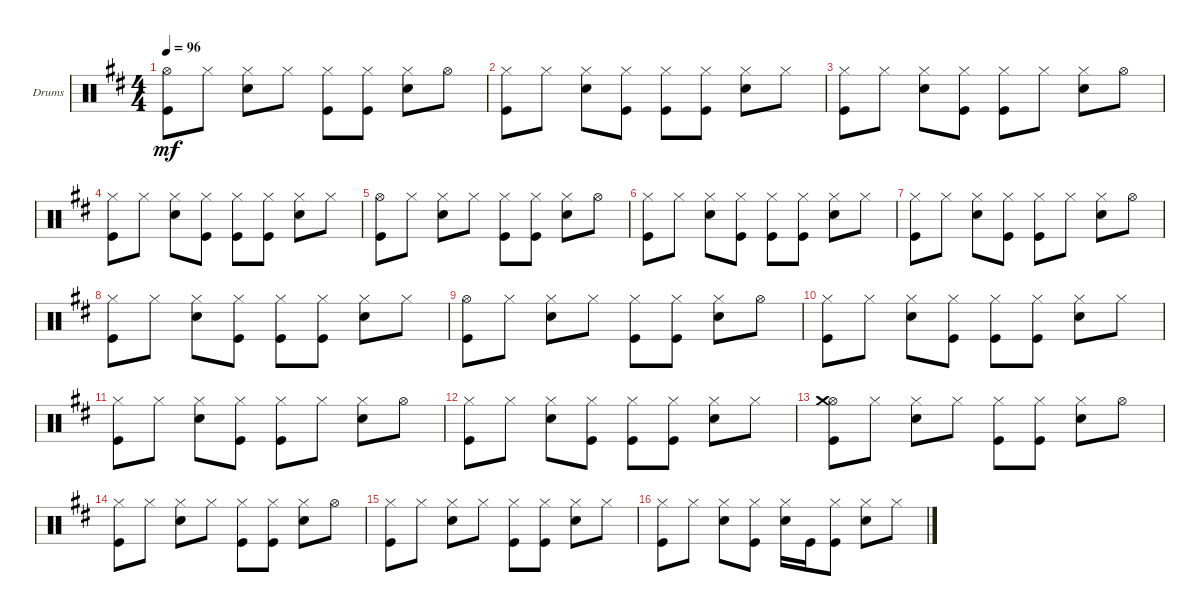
\defaultSystemsLayout 4
\bracketExtendMode groupsimilarinstruments
\firstSystemTrackNameOrientation horizontal
\otherSystemsTrackNameOrientation horizontal
\track ("Drumkit" "Drums") {instrument percussion}
\staff {score}
\articulation defaults
\ts (4 4)
\tempo 96
\clef neutral
\ks d
("Hi-Hat (open)" "Kick (hit)").8{dy mf} "Hi-Hat (closed)".8 ("Hi-Hat (closed)" "Snare (hit) 2").8 "Hi-Hat (closed)".8 ("Hi-Hat (closed)" "Kick (hit)").8 ("Hi-Hat (closed)" "Kick (hit)").8 ("Hi-Hat (closed)" "Snare (hit) 2").8 "Hi-Hat (open)".8 |
("Hi-Hat (closed)" "Kick (hit)").8 "Hi-Hat (closed)".8 ("Hi-Hat (closed)" "Snare (hit) 2").8 ("Hi-Hat (closed)" "Kick (hit)").8 ("Hi-Hat (closed)" "Kick (hit)").8 ("Hi-Hat (closed)" "Kick (hit)").8 ("Hi-Hat (closed)" "Snare (hit) 2").8 "Hi-Hat (closed)".8 |
("Hi-Hat (closed)" "Kick (hit)").8 "Hi-Hat (closed)".8 ("Hi-Hat (closed)" "Snare (hit) 2").8 ("Hi-Hat (closed)" "Kick (hit)").8 ("Hi-Hat (closed)" "Kick (hit)").8 "Hi-Hat (closed)".8 ("Hi-Hat (closed)" "Snare (hit) 2").8 "Hi-Hat (open)".8 |
("Hi-Hat (closed)" "Kick (hit)").8 "Hi-Hat (closed)".8 ("Hi-Hat (closed)" "Snare (hit) 2").8 ("Hi-Hat (closed)" "Kick (hit)").8 ("Hi-Hat (closed)" "Kick (hit)").8 ("Hi-Hat (closed)" "Kick (hit)").8 ("Hi-Hat (closed)" "Snare (hit) 2").8 "Hi-Hat (closed)".8 |
("Hi-Hat (open)" "Kick (hit)").8 "Hi-Hat (closed)".8 ("Hi-Hat (closed)" "Snare (hit) 2").8 "Hi-Hat (closed)".8 ("Hi-Hat (closed)" "Kick (hit)").8 ("Hi-Hat (closed)" "Kick (hit)").8 ("Hi-Hat (closed)" "Snare (hit) 2").8 "Hi-Hat (open)".8 |
("Hi-Hat (closed)" "Kick (hit)").8 "Hi-Hat (closed)".8 ("Hi-Hat (closed)" "Snare (hit) 2").8 ("Hi-Hat (closed)" "Kick (hit)").8 ("Hi-Hat (closed)" "Kick (hit)").8 ("Hi-Hat (closed)" "Kick (hit)").8 ("Hi-Hat (closed)" "Snare (hit) 2").8 "Hi-Hat (closed)".8 |
("Hi-Hat (closed)" "Kick (hit)").8 "Hi-Hat (closed)".8 ("Hi-Hat (closed)" "Snare (hit) 2").8 ("Hi-Hat (closed)" "Kick (hit)").8 ("Hi-Hat (closed)" "Kick (hit)").8 "Hi-Hat (closed)".8 ("Hi-Hat (closed)" "Snare (hit) 2").8 "Hi-Hat (open)".8 |
("Hi-Hat (closed)" "Kick (hit)").8 "Hi-Hat (closed)".8 ("Hi-Hat (closed)" "Snare (hit) 2").8 ("Hi-Hat (closed)" "Kick (hit)").8 ("Hi-Hat (closed)" "Kick (hit)").8 ("Hi-Hat (closed)" "Kick (hit)").8 ("Hi-Hat (closed)" "Snare (hit) 2").8 "Hi-Hat (closed)".8 |
("Hi-Hat (open)" "Kick (hit)").8 "Hi-Hat (closed)".8 ("Hi-Hat (closed)" "Snare (hit) 2").8 "Hi-Hat (closed)".8 ("Hi-Hat (closed)" "Kick (hit)").8 ("Hi-Hat (closed)" "Kick (hit)").8 ("Hi-Hat (closed)" "Snare (hit) 2").8 "Hi-Hat (open)".8 |
("Hi-Hat (closed)" "Kick (hit)").8 "Hi-Hat (closed)".8 ("Hi-Hat (closed)" "Snare (hit) 2").8 ("Hi-Hat (closed)" "Kick (hit)").8 ("Hi-Hat (closed)" "Kick (hit)").8 ("Hi-Hat (closed)" "Kick (hit)").8 ("Hi-Hat (closed)" "Snare (hit) 2").8 "Hi-Hat (closed)".8 |
("Hi-Hat (closed)" "Kick (hit)").8 "Hi-Hat (closed)".8 ("Hi-Hat (closed)" "Snare (hit) 2").8 ("Hi-Hat (closed)" "Kick (hit)").8 ("Hi-Hat (closed)" "Kick (hit)").8 "Hi-Hat (closed)".8 ("Hi-Hat (closed)" "Snare (hit) 2").8 "Hi-Hat (open)".8 |
("Hi-Hat (closed)" "Kick (hit)").8 "Hi-Hat (closed)".8 ("Hi-Hat (closed)" "Snare (hit) 2").8 ("Hi-Hat (closed)" "Kick (hit)").8 ("Hi-Hat (closed)" "Kick (hit)").8 ("Hi-Hat (closed)" "Kick (hit)").8 ("Hi-Hat (closed)" "Snare (hit) 2").8 "Hi-Hat (closed)".8 |
("Hi-Hat (open)" "Crash medium (hit)" "Kick (hit)").8 "Hi-Hat (closed)".8 ("Hi-Hat (closed)" "Snare (hit) 2").8 "Hi-Hat (closed)".8 ("Hi-Hat (closed)" "Kick (hit)").8 ("Hi-Hat (closed)" "Kick (hit)").8 ("Hi-Hat (closed)" "Snare (hit) 2").8 "Hi-Hat (open)".8 |
("Hi-Hat (closed)" "Kick (hit)").8 "Hi-Hat (closed)".8 ("Hi-Hat (closed)" "Snare (hit) 2").8 "Hi-Hat (closed)".8 ("Hi-Hat (closed)" "Kick (hit)").8 ("Hi-Hat (closed)" "Kick (hit)").8 ("Hi-Hat (closed)" "Snare (hit) 2").8 "Hi-Hat (open)".8 |
("Hi-Hat (closed)" "Kick (hit)").8 "Hi-Hat (closed)".8 ("Hi-Hat (closed)" "Snare (hit) 2").8 "Hi-Hat (closed)".8 ("Hi-Hat (closed)" "Kick (hit)").8 ("Hi-Hat (closed)" "Kick (hit)").8 ("Hi-Hat (closed)" "Snare (hit) 2").8 "Hi-Hat (closed)".8 |
("Hi-Hat (closed)" "Kick (hit)").8 "Hi-Hat (closed)".8 ("Hi-Hat (closed)" "Snare (hit) 2").8 ("Hi-Hat (closed)" "Kick (hit)").8 ("Hi-Hat (closed)" "Snare (hit) 2").16 "Kick (hit)".16 ("Hi-Hat (closed)" "Kick (hit)").8 ("Hi-Hat (closed)" "Snare (hit) 2").8 "Hi-Hat (closed)".8
